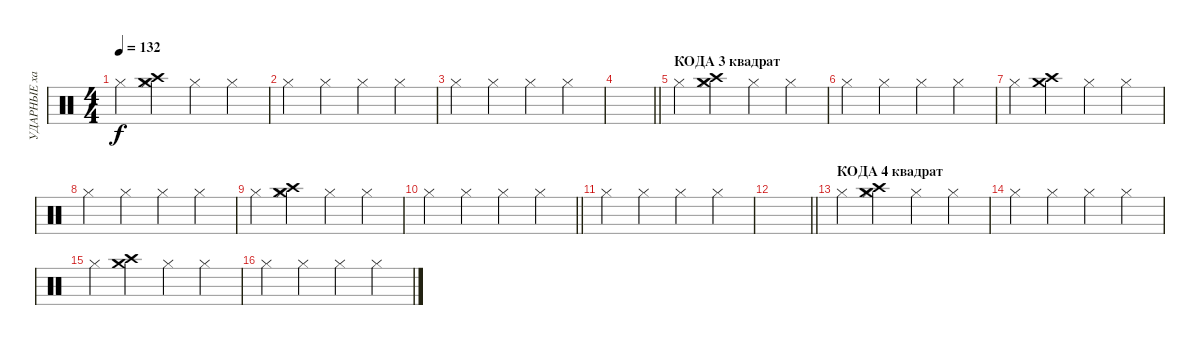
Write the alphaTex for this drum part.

\track ("УДАРНЫЕ хай хэт" "УДАРНЫЕ ха") {instrument percussion}
\staff {score}
\articulation defaults
\ts (4 4)
\tempo 132
\clef neutral
\ks c "Hi-Hat (closed)".4{dy f}
("Hi-Hat (closed)" "Crash high (hit)" "Crash medium (hit)").4 "Hi-Hat (closed)".4 "Hi-Hat (closed)".4 |
"Hi-Hat (closed)".4 "Hi-Hat (closed)".4 "Hi-Hat (closed)".4 "Hi-Hat (closed)".4 |
"Hi-Hat (closed)".4 "Hi-Hat (closed)".4 "Hi-Hat (closed)".4 "Hi-Hat (closed)".4 |
\barLineRight lightlight
|
\section ("" "КОДА 3 квадрат")
"Hi-Hat (closed)".4 ("Hi-Hat (closed)" "Crash high (hit)" "Crash medium (hit)").4 "Hi-Hat (closed)".4 "Hi-Hat (closed)".4 |
"Hi-Hat (closed)".4 "Hi-Hat (closed)".4 "Hi-Hat (closed)".4 "Hi-Hat (closed)".4 |
"Hi-Hat (closed)".4 ("Crash high (hit)" "Crash medium (hit)").4 "Hi-Hat (closed)".4 "Hi-Hat (closed)".4 |
"Hi-Hat (closed)".4 "Hi-Hat (closed)".4 "Hi-Hat (closed)".4 "Hi-Hat (closed)".4 |
"Hi-Hat (closed)".4 ("Hi-Hat (closed)" "Crash high (hit)" "Crash medium (hit)").4 "Hi-Hat (closed)".4 "Hi-Hat (closed)".4 |
\barLineRight lightlight "Hi-Hat (closed)".4 "Hi-Hat (closed)".4 "Hi-Hat (closed)".4 "Hi-Hat (closed)".4
|
"Hi-Hat (closed)".4 "Hi-Hat (closed)".4 "Hi-Hat (closed)".4 "Hi-Hat (closed)".4 |
\barLineRight lightlight
|
\section ("" "КОДА 4 квадрат")
"Hi-Hat (closed)".4 ("Hi-Hat (closed)" "Crash high (hit)" "Crash medium (hit)").4 "Hi-Hat (closed)".4 "Hi-Hat (closed)".4 |
"Hi-Hat (closed)".4 "Hi-Hat (closed)".4 "Hi-Hat (closed)".4 "Hi-Hat (closed)".4 |
"Hi-Hat (closed)".4 ("Crash high (hit)" "Crash medium (hit)").4 "Hi-Hat (closed)".4 "Hi-Hat (closed)".4 |
"Hi-Hat (closed)".4 "Hi-Hat (closed)".4 "Hi-Hat (closed)".4 "Hi-Hat (closed)".4
